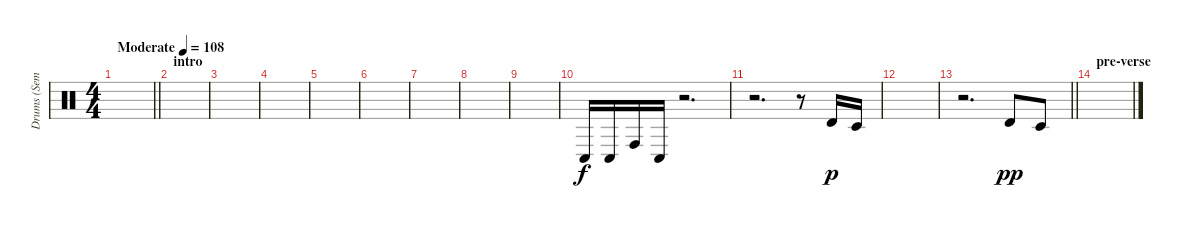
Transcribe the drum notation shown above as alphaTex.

\track ("Drums (Semple)" "Drums (Sem") {instrument percussion}
\staff {score}
\articulation defaults
\ts (4 4)
\tempo (108 "Moderate")
\clef neutral
\barLineRight lightlight
\ks c
|
\section ("" "intro")
|
|
|
|
|
|
|
|
"Conga low (hit)".16 "Conga low (hit)".16 "Conga high (hit)".16 "Conga low (hit)".16 r.2{d} |
r.2{d} r.8 "Timbale high (hit)".16{dy p} "Timbale low (hit)".16 |
|
\barLineRight lightlight
r.2{d} "Timbale high (hit)".8{dy pp} "Timbale low (hit)".8 |
\section ("" "pre-verse")
